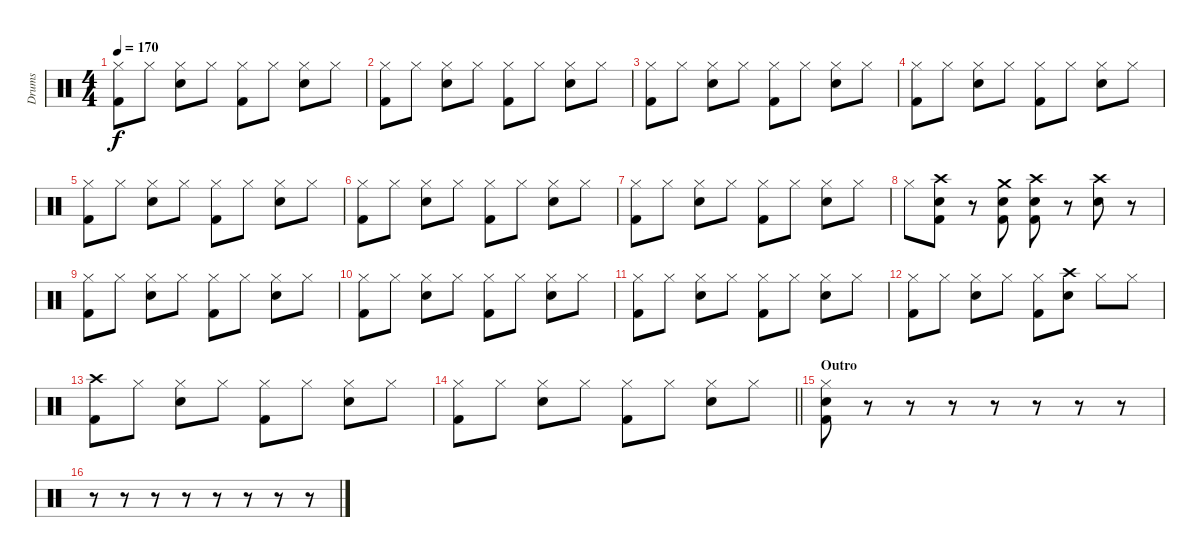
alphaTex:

\track ("Drums" "Drums") {instrument percussion}
\staff {score}
\articulation defaults
\ts (4 4)
\tempo 170
\clef neutral
\ks c
("Hi-Hat (closed)" "Kick (hit) 2").8{dy f} "Hi-Hat (closed)".8 ("Hi-Hat (closed)" "Snare (hit) 2").8 "Hi-Hat (closed)".8 ("Hi-Hat (closed)" "Kick (hit) 2").8 "Hi-Hat (closed)".8 ("Hi-Hat (closed)" "Snare (hit) 2").8 "Hi-Hat (closed)".8 |
("Hi-Hat (closed)" "Kick (hit) 2").8 "Hi-Hat (closed)".8 ("Hi-Hat (closed)" "Snare (hit) 2").8 "Hi-Hat (closed)".8 ("Hi-Hat (closed)" "Kick (hit) 2").8 "Hi-Hat (closed)".8 ("Hi-Hat (closed)" "Snare (hit) 2").8 "Hi-Hat (closed)".8 |
("Hi-Hat (closed)" "Kick (hit) 2").8 "Hi-Hat (closed)".8 ("Hi-Hat (closed)" "Snare (hit) 2").8 "Hi-Hat (closed)".8 ("Hi-Hat (closed)" "Kick (hit) 2").8 "Hi-Hat (closed)".8 ("Hi-Hat (closed)" "Snare (hit) 2").8 "Hi-Hat (closed)".8 |
("Hi-Hat (closed)" "Kick (hit) 2").8 "Hi-Hat (closed)".8 ("Hi-Hat (closed)" "Snare (hit) 2").8 "Hi-Hat (closed)".8 ("Hi-Hat (closed)" "Kick (hit) 2").8 "Hi-Hat (closed)".8 ("Hi-Hat (closed)" "Snare (hit) 2").8 "Hi-Hat (closed)".8 |
("Hi-Hat (closed)" "Kick (hit) 2").8 "Hi-Hat (closed)".8 ("Hi-Hat (closed)" "Snare (hit) 2").8 "Hi-Hat (closed)".8 ("Hi-Hat (closed)" "Kick (hit) 2").8 "Hi-Hat (closed)".8 ("Hi-Hat (closed)" "Snare (hit) 2").8 "Hi-Hat (closed)".8 |
("Hi-Hat (closed)" "Kick (hit) 2").8 "Hi-Hat (closed)".8 ("Hi-Hat (closed)" "Snare (hit) 2").8 "Hi-Hat (closed)".8 ("Hi-Hat (closed)" "Kick (hit) 2").8 "Hi-Hat (closed)".8 ("Hi-Hat (closed)" "Snare (hit) 2").8 "Hi-Hat (closed)".8 |
("Hi-Hat (closed)" "Kick (hit) 2").8 "Hi-Hat (closed)".8 ("Hi-Hat (closed)" "Snare (hit) 2").8 "Hi-Hat (closed)".8 ("Hi-Hat (closed)" "Kick (hit) 2").8 "Hi-Hat (closed)".8 ("Hi-Hat (closed)" "Snare (hit) 2").8 "Hi-Hat (closed)".8 |
"Hi-Hat (closed)".8 ("Crash high (hit)" "Snare (hit) 2" "Kick (hit) 2").8 r.8 ("Crash medium (hit)" "Snare (hit) 2" "Kick (hit) 2").8 ("Crash high (hit)" "Snare (hit) 2" "Kick (hit) 2").8 r.8 ("Crash high (hit)" "Snare (hit) 2").8 r.8 |
("Hi-Hat (closed)" "Kick (hit) 2").8 "Hi-Hat (closed)".8 ("Hi-Hat (closed)" "Snare (hit) 2").8 "Hi-Hat (closed)".8 ("Hi-Hat (closed)" "Kick (hit) 2").8 "Hi-Hat (closed)".8 ("Hi-Hat (closed)" "Snare (hit) 2").8 "Hi-Hat (closed)".8 |
("Hi-Hat (closed)" "Kick (hit) 2").8 "Hi-Hat (closed)".8 ("Hi-Hat (closed)" "Snare (hit) 2").8 "Hi-Hat (closed)".8 ("Hi-Hat (closed)" "Kick (hit) 2").8 "Hi-Hat (closed)".8 ("Hi-Hat (closed)" "Snare (hit) 2").8 "Hi-Hat (closed)".8 |
("Hi-Hat (closed)" "Kick (hit) 2").8 "Hi-Hat (closed)".8 ("Hi-Hat (closed)" "Snare (hit) 2").8 "Hi-Hat (closed)".8 ("Hi-Hat (closed)" "Kick (hit) 2").8 "Hi-Hat (closed)".8 ("Hi-Hat (closed)" "Snare (hit) 2").8 "Hi-Hat (closed)".8 |
("Hi-Hat (closed)" "Kick (hit) 2").8 "Hi-Hat (closed)".8 ("Hi-Hat (closed)" "Snare (hit) 2").8 "Hi-Hat (closed)".8 ("Hi-Hat (closed)" "Kick (hit) 2").8 ("Crash high (hit)" "Snare (hit) 2").8 "Hi-Hat (closed)".8 "Hi-Hat (closed)".8 |
("Crash high (hit)" "Kick (hit) 2").8 "Hi-Hat (closed)".8 ("Hi-Hat (closed)" "Snare (hit) 2").8 "Hi-Hat (closed)".8 ("Hi-Hat (closed)" "Kick (hit) 2").8 "Hi-Hat (closed)".8 ("Hi-Hat (closed)" "Snare (hit) 2").8 "Hi-Hat (closed)".8 |
\barLineRight lightlight
("Hi-Hat (closed)" "Kick (hit) 2").8 "Hi-Hat (closed)".8 ("Hi-Hat (closed)" "Snare (hit) 2").8 "Hi-Hat (closed)".8 ("Hi-Hat (closed)" "Kick (hit) 2").8 "Hi-Hat (closed)".8 ("Hi-Hat (closed)" "Snare (hit) 2").8 "Hi-Hat (closed)".8 |
\section ("" "Outro")
("Hi-Hat (closed)" "Snare (hit) 2" "Kick (hit) 2").8 r.8 r.8 r.8 r.8 r.8 r.8 r.8 |
r.8 r.8 r.8 r.8 r.8 r.8 r.8 r.8
